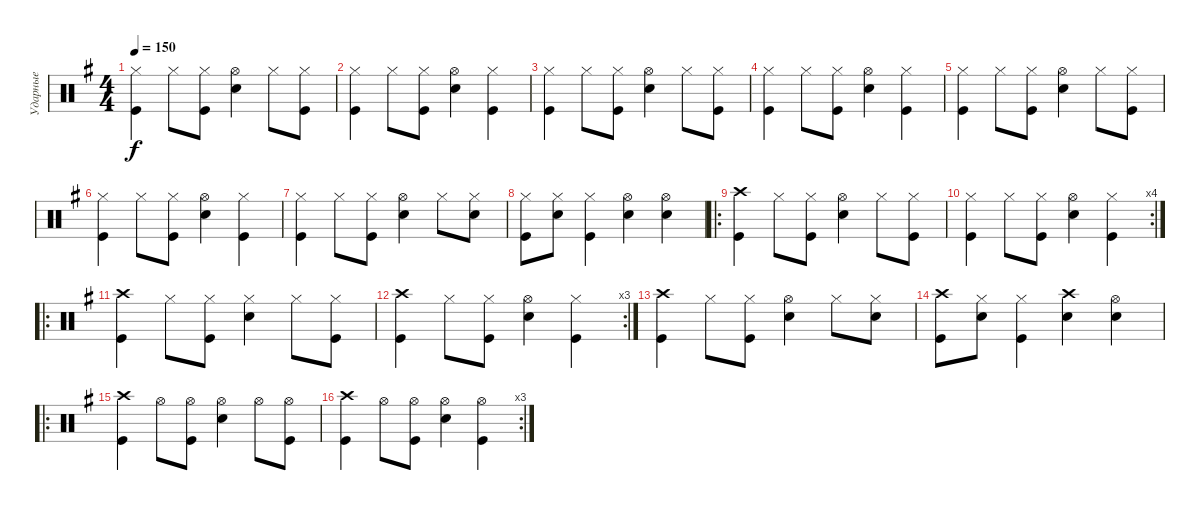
\track ("Ударные" "Ударные") {instrument percussion}
\staff {score}
\articulation defaults
\ts (4 4)
\tempo 150
\clef neutral
\ks g
("Hi-Hat (closed)" "Kick (hit)").4{dy f} "Hi-Hat (closed)".8 ("Hi-Hat (closed)" "Kick (hit)").8 ("Hi-Hat (open)" "Snare (hit) 2").4 "Hi-Hat (closed)".8 ("Hi-Hat (closed)" "Kick (hit)").8 |
("Hi-Hat (closed)" "Kick (hit)").4 "Hi-Hat (closed)".8 ("Hi-Hat (closed)" "Kick (hit)").8 ("Hi-Hat (open)" "Snare (hit) 2").4 ("Hi-Hat (closed)" "Kick (hit)").4 |
("Hi-Hat (closed)" "Kick (hit)").4 "Hi-Hat (closed)".8 ("Hi-Hat (closed)" "Kick (hit)").8 ("Hi-Hat (open)" "Snare (hit) 2").4 "Hi-Hat (closed)".8 ("Hi-Hat (closed)" "Kick (hit)").8 |
("Hi-Hat (closed)" "Kick (hit)").4 "Hi-Hat (closed)".8 ("Hi-Hat (closed)" "Kick (hit)").8 ("Hi-Hat (open)" "Snare (hit) 2").4 ("Hi-Hat (closed)" "Kick (hit)").4 |
("Hi-Hat (closed)" "Kick (hit)").4 "Hi-Hat (closed)".8 ("Hi-Hat (closed)" "Kick (hit)").8 ("Hi-Hat (open)" "Snare (hit) 2").4 "Hi-Hat (closed)".8 ("Hi-Hat (closed)" "Kick (hit)").8 |
("Hi-Hat (closed)" "Kick (hit)").4 "Hi-Hat (closed)".8 ("Hi-Hat (closed)" "Kick (hit)").8 ("Hi-Hat (open)" "Snare (hit) 2").4 ("Hi-Hat (closed)" "Kick (hit)").4 |
("Hi-Hat (closed)" "Kick (hit)").4 "Hi-Hat (closed)".8 ("Hi-Hat (closed)" "Kick (hit)").8 ("Hi-Hat (open)" "Snare (hit) 2").4 "Hi-Hat (closed)".8 ("Hi-Hat (closed)" "Snare (hit) 2").8 |
("Hi-Hat (closed)" "Kick (hit)").8 ("Hi-Hat (closed)" "Snare (hit) 2").8 ("Hi-Hat (closed)" "Kick (hit)").4 ("Hi-Hat (open)" "Snare (hit) 2").4 ("Hi-Hat (open)" "Snare (hit) 2").4 |
\ro
("Crash high (hit)" "Kick (hit)").4 "Hi-Hat (closed)".8 ("Hi-Hat (closed)" "Kick (hit)").8 ("Hi-Hat (open)" "Snare (hit) 2").4 "Hi-Hat (closed)".8 ("Hi-Hat (closed)" "Kick (hit)").8 |
\rc 4
("Hi-Hat (closed)" "Kick (hit)").4 "Hi-Hat (closed)".8 ("Hi-Hat (closed)" "Kick (hit)").8 ("Hi-Hat (open)" "Snare (hit) 2").4 ("Hi-Hat (closed)" "Kick (hit)").4 |
\ro
("Crash high (hit)" "Kick (hit)").4 "Hi-Hat (closed)".8 ("Hi-Hat (closed)" "Kick (hit)").8 ("Hi-Hat (closed)" "Snare (hit) 2").4 "Hi-Hat (closed)".8 ("Hi-Hat (closed)" "Kick (hit)").8 |
\rc 3
("Crash high (hit)" "Kick (hit)").4 "Hi-Hat (closed)".8 ("Hi-Hat (closed)" "Kick (hit)").8 ("Hi-Hat (open)" "Snare (hit) 2").4 ("Hi-Hat (closed)" "Kick (hit)").4 |
("Crash high (hit)" "Kick (hit)").4 "Hi-Hat (closed)".8 ("Hi-Hat (closed)" "Kick (hit)").8 ("Hi-Hat (open)" "Snare (hit) 2").4 "Hi-Hat (closed)".8 ("Hi-Hat (closed)" "Snare (hit) 2").8 |
("Crash high (hit)" "Kick (hit)").8 ("Hi-Hat (closed)" "Snare (hit) 2").8 ("Hi-Hat (closed)" "Kick (hit)").4 ("Crash high (hit)" "Snare (hit) 2").4 ("Hi-Hat (open)" "Snare (hit) 2").4 |
\ro
("Crash high (hit)" "Kick (hit)").4 "Hi-Hat (open)".8 ("Hi-Hat (open)" "Kick (hit)").8 ("Hi-Hat (open)" "Snare (hit) 2").4 "Hi-Hat (open)".8 ("Hi-Hat (open)" "Kick (hit)").8 |
\rc 3
("Crash high (hit)" "Kick (hit)").4 "Hi-Hat (open)".8 ("Hi-Hat (open)" "Kick (hit)").8 ("Hi-Hat (open)" "Snare (hit) 2").4 ("Hi-Hat (open)" "Kick (hit)").4
